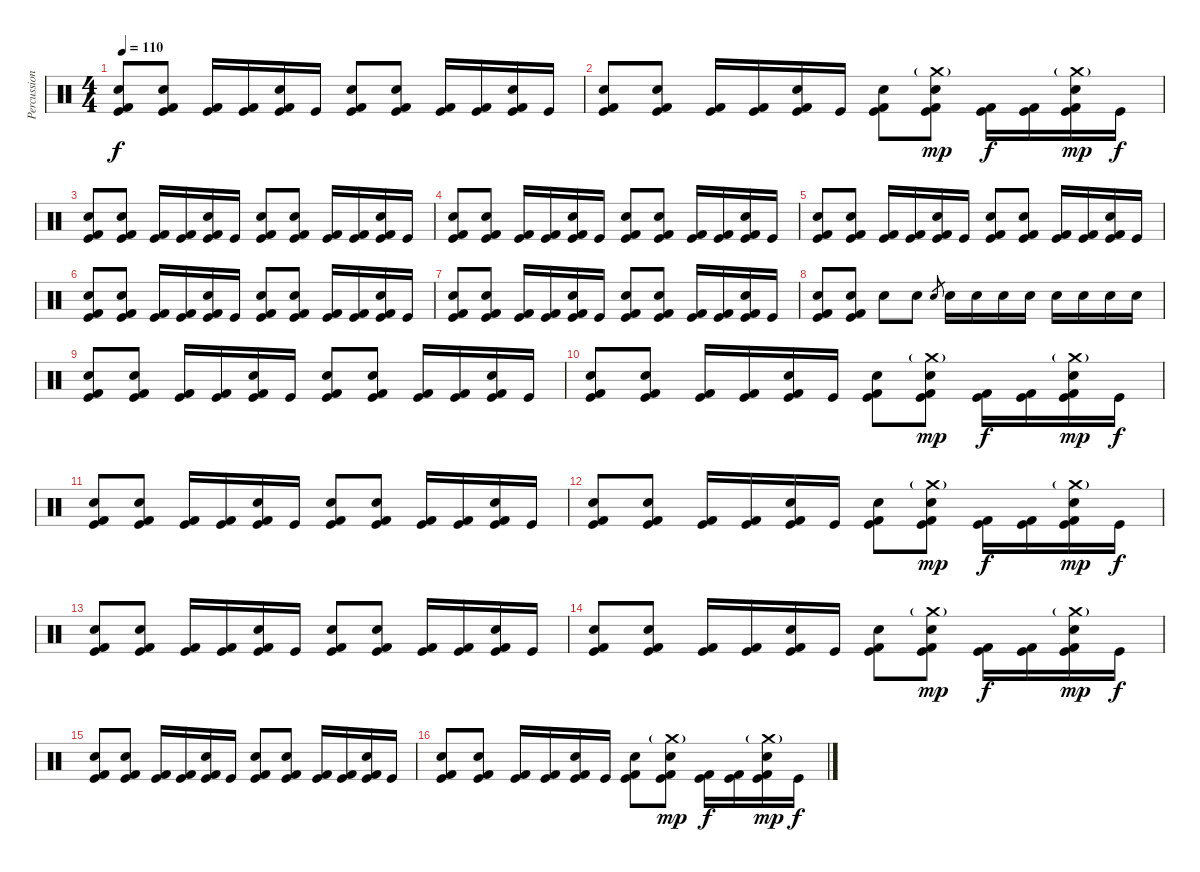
\track ("Percussion" "Percussion") {instrument percussion}
\staff {score}
\articulation defaults
\ts (4 4)
\tempo 110
\clef neutral
\ks c
("Snare (hit) 2" "Kick (hit)" "Kick (hit) 2").8{dy f} ("Electric Snare (hit)" "Kick (hit)" "Kick (hit) 2").8 ("Kick (hit)" "Kick (hit) 2").16 ("Kick (hit)" "Kick (hit) 2").16 ("Electric Snare (hit)" "Kick (hit)" "Kick (hit) 2").16 "Kick (hit)".16 ("Snare (hit) 2" "Kick (hit)" "Kick (hit) 2").8 ("Electric Snare (hit)" "Kick (hit)" "Kick (hit) 2").8 ("Kick (hit)" "Kick (hit) 2").16 ("Kick (hit)" "Kick (hit) 2").16 ("Electric Snare (hit)" "Kick (hit)" "Kick (hit) 2").16 "Kick (hit)".16 |
("Snare (hit) 2" "Kick (hit)" "Kick (hit) 2").8 ("Electric Snare (hit)" "Kick (hit)" "Kick (hit) 2").8 ("Kick (hit)" "Kick (hit) 2").16 ("Kick (hit)" "Kick (hit) 2").16 ("Electric Snare (hit)" "Kick (hit)" "Kick (hit) 2").16 "Kick (hit)".16 ("Snare (hit) 2" "Kick (hit)" "Kick (hit) 2").8 ("Crash medium (hit)"{g} "Electric Snare (hit)" "Kick (hit)" "Kick (hit) 2").8{dy mp} ("Kick (hit)" "Kick (hit) 2").16{dy f} ("Kick (hit)" "Kick (hit) 2").16 ("Crash medium (hit)"{g} "Electric Snare (hit)" "Kick (hit)" "Kick (hit) 2").16{dy mp} "Kick (hit)".16{dy f} |
("Snare (hit) 2" "Kick (hit)" "Kick (hit) 2").8 ("Electric Snare (hit)" "Kick (hit)" "Kick (hit) 2").8 ("Kick (hit)" "Kick (hit) 2").16 ("Kick (hit)" "Kick (hit) 2").16 ("Electric Snare (hit)" "Kick (hit)" "Kick (hit) 2").16 "Kick (hit)".16 ("Snare (hit) 2" "Kick (hit)" "Kick (hit) 2").8 ("Electric Snare (hit)" "Kick (hit)" "Kick (hit) 2").8 ("Kick (hit)" "Kick (hit) 2").16 ("Kick (hit)" "Kick (hit) 2").16 ("Electric Snare (hit)" "Kick (hit)" "Kick (hit) 2").16 "Kick (hit)".16 |
("Snare (hit) 2" "Kick (hit)" "Kick (hit) 2").8 ("Electric Snare (hit)" "Kick (hit)" "Kick (hit) 2").8 ("Kick (hit)" "Kick (hit) 2").16 ("Kick (hit)" "Kick (hit) 2").16 ("Electric Snare (hit)" "Kick (hit)" "Kick (hit) 2").16 "Kick (hit)".16 ("Snare (hit) 2" "Kick (hit)" "Kick (hit) 2").8 ("Electric Snare (hit)" "Kick (hit)" "Kick (hit) 2").8 ("Kick (hit)" "Kick (hit) 2").16 ("Kick (hit)" "Kick (hit) 2").16 ("Electric Snare (hit)" "Kick (hit)" "Kick (hit) 2").16 "Kick (hit)".16 |
("Snare (hit) 2" "Kick (hit)" "Kick (hit) 2").8 ("Electric Snare (hit)" "Kick (hit)" "Kick (hit) 2").8 ("Kick (hit)" "Kick (hit) 2").16 ("Kick (hit)" "Kick (hit) 2").16 ("Electric Snare (hit)" "Kick (hit)" "Kick (hit) 2").16 "Kick (hit)".16 ("Snare (hit) 2" "Kick (hit)" "Kick (hit) 2").8 ("Electric Snare (hit)" "Kick (hit)" "Kick (hit) 2").8 ("Kick (hit)" "Kick (hit) 2").16 ("Kick (hit)" "Kick (hit) 2").16 ("Electric Snare (hit)" "Kick (hit)" "Kick (hit) 2").16 "Kick (hit)".16 |
("Snare (hit) 2" "Kick (hit)" "Kick (hit) 2").8 ("Electric Snare (hit)" "Kick (hit)" "Kick (hit) 2").8 ("Kick (hit)" "Kick (hit) 2").16 ("Kick (hit)" "Kick (hit) 2").16 ("Electric Snare (hit)" "Kick (hit)" "Kick (hit) 2").16 "Kick (hit)".16 ("Snare (hit) 2" "Kick (hit)" "Kick (hit) 2").8 ("Electric Snare (hit)" "Kick (hit)" "Kick (hit) 2").8 ("Kick (hit)" "Kick (hit) 2").16 ("Kick (hit)" "Kick (hit) 2").16 ("Electric Snare (hit)" "Kick (hit)" "Kick (hit) 2").16 "Kick (hit)".16 |
("Snare (hit) 2" "Kick (hit)" "Kick (hit) 2").8 ("Electric Snare (hit)" "Kick (hit)" "Kick (hit) 2").8 ("Kick (hit)" "Kick (hit) 2").16 ("Kick (hit)" "Kick (hit) 2").16 ("Electric Snare (hit)" "Kick (hit)" "Kick (hit) 2").16 "Kick (hit)".16 ("Snare (hit) 2" "Kick (hit)" "Kick (hit) 2").8 ("Electric Snare (hit)" "Kick (hit)" "Kick (hit) 2").8 ("Kick (hit)" "Kick (hit) 2").16 ("Kick (hit)" "Kick (hit) 2").16 ("Electric Snare (hit)" "Kick (hit)" "Kick (hit) 2").16 "Kick (hit)".16 |
("Snare (hit) 2" "Kick (hit)" "Kick (hit) 2").8 ("Electric Snare (hit)" "Kick (hit)" "Kick (hit) 2").8 "Electric Snare (hit)".8 "Electric Snare (hit)".8 "Electric Snare (hit)".8{gr} "Electric Snare (hit)".16 "Electric Snare (hit)".16 "Electric Snare (hit)".16 "Electric Snare (hit)".16 "Electric Snare (hit)".16 "Electric Snare (hit)".16 "Electric Snare (hit)".16 "Electric Snare (hit)".16 |
("Snare (hit) 2" "Kick (hit)" "Kick (hit) 2").8 ("Electric Snare (hit)" "Kick (hit)" "Kick (hit) 2").8 ("Kick (hit)" "Kick (hit) 2").16 ("Kick (hit)" "Kick (hit) 2").16 ("Electric Snare (hit)" "Kick (hit)" "Kick (hit) 2").16 "Kick (hit)".16 ("Snare (hit) 2" "Kick (hit)" "Kick (hit) 2").8 ("Electric Snare (hit)" "Kick (hit)" "Kick (hit) 2").8 ("Kick (hit)" "Kick (hit) 2").16 ("Kick (hit)" "Kick (hit) 2").16 ("Electric Snare (hit)" "Kick (hit)" "Kick (hit) 2").16 "Kick (hit)".16 |
("Snare (hit) 2" "Kick (hit)" "Kick (hit) 2").8 ("Electric Snare (hit)" "Kick (hit)" "Kick (hit) 2").8 ("Kick (hit)" "Kick (hit) 2").16 ("Kick (hit)" "Kick (hit) 2").16 ("Electric Snare (hit)" "Kick (hit)" "Kick (hit) 2").16 "Kick (hit)".16 ("Snare (hit) 2" "Kick (hit)" "Kick (hit) 2").8 ("Crash medium (hit)"{g} "Electric Snare (hit)" "Kick (hit)" "Kick (hit) 2").8{dy mp} ("Kick (hit)" "Kick (hit) 2").16{dy f} ("Kick (hit)" "Kick (hit) 2").16 ("Crash medium (hit)"{g} "Electric Snare (hit)" "Kick (hit)" "Kick (hit) 2").16{dy mp} "Kick (hit)".16{dy f} |
("Snare (hit) 2" "Kick (hit)" "Kick (hit) 2").8 ("Electric Snare (hit)" "Kick (hit)" "Kick (hit) 2").8 ("Kick (hit)" "Kick (hit) 2").16 ("Kick (hit)" "Kick (hit) 2").16 ("Electric Snare (hit)" "Kick (hit)" "Kick (hit) 2").16 "Kick (hit)".16 ("Snare (hit) 2" "Kick (hit)" "Kick (hit) 2").8 ("Electric Snare (hit)" "Kick (hit)" "Kick (hit) 2").8 ("Kick (hit)" "Kick (hit) 2").16 ("Kick (hit)" "Kick (hit) 2").16 ("Electric Snare (hit)" "Kick (hit)" "Kick (hit) 2").16 "Kick (hit)".16 |
("Snare (hit) 2" "Kick (hit)" "Kick (hit) 2").8 ("Electric Snare (hit)" "Kick (hit)" "Kick (hit) 2").8 ("Kick (hit)" "Kick (hit) 2").16 ("Kick (hit)" "Kick (hit) 2").16 ("Electric Snare (hit)" "Kick (hit)" "Kick (hit) 2").16 "Kick (hit)".16 ("Snare (hit) 2" "Kick (hit)" "Kick (hit) 2").8 ("Crash medium (hit)"{g} "Electric Snare (hit)" "Kick (hit)" "Kick (hit) 2").8{dy mp} ("Kick (hit)" "Kick (hit) 2").16{dy f} ("Kick (hit)" "Kick (hit) 2").16 ("Crash medium (hit)"{g} "Electric Snare (hit)" "Kick (hit)" "Kick (hit) 2").16{dy mp} "Kick (hit)".16{dy f} |
("Snare (hit) 2" "Kick (hit)" "Kick (hit) 2").8 ("Electric Snare (hit)" "Kick (hit)" "Kick (hit) 2").8 ("Kick (hit)" "Kick (hit) 2").16 ("Kick (hit)" "Kick (hit) 2").16 ("Electric Snare (hit)" "Kick (hit)" "Kick (hit) 2").16 "Kick (hit)".16 ("Snare (hit) 2" "Kick (hit)" "Kick (hit) 2").8 ("Electric Snare (hit)" "Kick (hit)" "Kick (hit) 2").8 ("Kick (hit)" "Kick (hit) 2").16 ("Kick (hit)" "Kick (hit) 2").16 ("Electric Snare (hit)" "Kick (hit)" "Kick (hit) 2").16 "Kick (hit)".16 |
("Snare (hit) 2" "Kick (hit)" "Kick (hit) 2").8 ("Electric Snare (hit)" "Kick (hit)" "Kick (hit) 2").8 ("Kick (hit)" "Kick (hit) 2").16 ("Kick (hit)" "Kick (hit) 2").16 ("Electric Snare (hit)" "Kick (hit)" "Kick (hit) 2").16 "Kick (hit)".16 ("Snare (hit) 2" "Kick (hit)" "Kick (hit) 2").8 ("Crash medium (hit)"{g} "Electric Snare (hit)" "Kick (hit)" "Kick (hit) 2").8{dy mp} ("Kick (hit)" "Kick (hit) 2").16{dy f} ("Kick (hit)" "Kick (hit) 2").16 ("Crash medium (hit)"{g} "Electric Snare (hit)" "Kick (hit)" "Kick (hit) 2").16{dy mp} "Kick (hit)".16{dy f} |
("Snare (hit) 2" "Kick (hit)" "Kick (hit) 2").8 ("Electric Snare (hit)" "Kick (hit)" "Kick (hit) 2").8 ("Kick (hit)" "Kick (hit) 2").16 ("Kick (hit)" "Kick (hit) 2").16 ("Electric Snare (hit)" "Kick (hit)" "Kick (hit) 2").16 "Kick (hit)".16 ("Snare (hit) 2" "Kick (hit)" "Kick (hit) 2").8 ("Electric Snare (hit)" "Kick (hit)" "Kick (hit) 2").8 ("Kick (hit)" "Kick (hit) 2").16 ("Kick (hit)" "Kick (hit) 2").16 ("Electric Snare (hit)" "Kick (hit)" "Kick (hit) 2").16 "Kick (hit)".16 |
("Snare (hit) 2" "Kick (hit)" "Kick (hit) 2").8 ("Electric Snare (hit)" "Kick (hit)" "Kick (hit) 2").8 ("Kick (hit)" "Kick (hit) 2").16 ("Kick (hit)" "Kick (hit) 2").16 ("Electric Snare (hit)" "Kick (hit)" "Kick (hit) 2").16 "Kick (hit)".16 ("Snare (hit) 2" "Kick (hit)" "Kick (hit) 2").8 ("Crash medium (hit)"{g} "Electric Snare (hit)" "Kick (hit)" "Kick (hit) 2").8{dy mp} ("Kick (hit)" "Kick (hit) 2").16{dy f} ("Kick (hit)" "Kick (hit) 2").16 ("Crash medium (hit)"{g} "Electric Snare (hit)" "Kick (hit)" "Kick (hit) 2").16{dy mp} "Kick (hit)".16{dy f}
